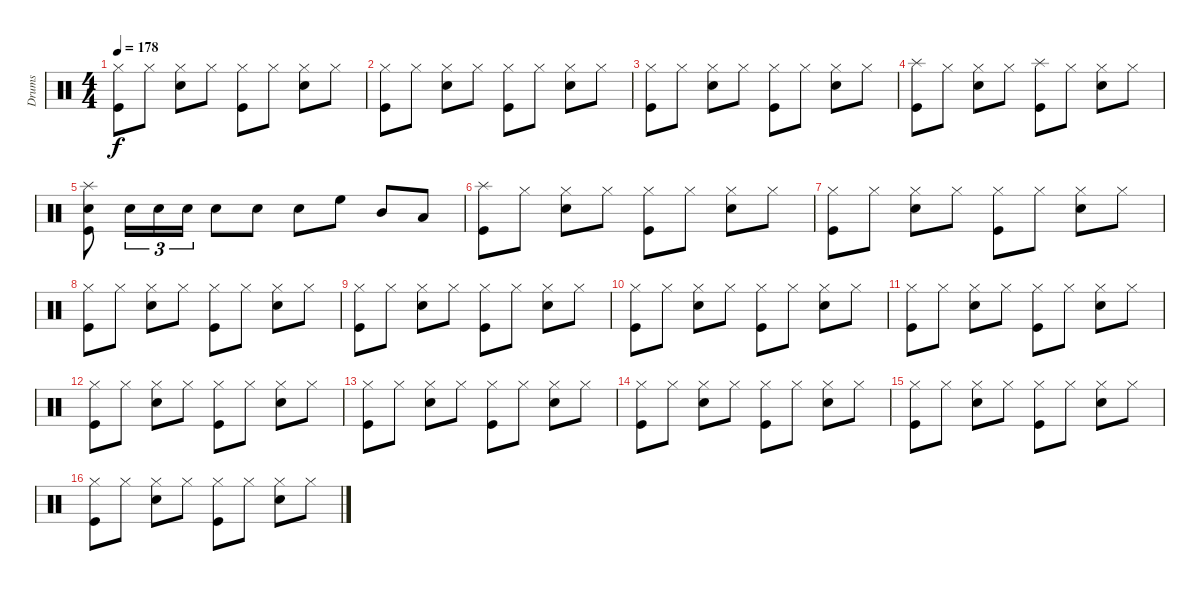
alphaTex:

\track ("Drums" "Drums") {instrument percussion}
\staff {score}
\articulation defaults
\ts (4 4)
\tempo 178
\clef neutral
\ks c
("Hi-Hat (closed)" "Kick (hit)").8{dy f} "Hi-Hat (closed)".8 ("Hi-Hat (closed)" "Electric Snare (hit)").8 "Hi-Hat (closed)".8 ("Hi-Hat (closed)" "Kick (hit)").8 "Hi-Hat (closed)".8 ("Hi-Hat (closed)" "Electric Snare (hit)").8 "Hi-Hat (closed)".8 |
("Hi-Hat (closed)" "Kick (hit)").8 "Hi-Hat (closed)".8 ("Hi-Hat (closed)" "Electric Snare (hit)").8 "Hi-Hat (closed)".8 ("Hi-Hat (closed)" "Kick (hit)").8 "Hi-Hat (closed)".8 ("Hi-Hat (closed)" "Electric Snare (hit)").8 "Hi-Hat (closed)".8 |
("Hi-Hat (closed)" "Kick (hit)").8 "Hi-Hat (closed)".8 ("Hi-Hat (closed)" "Electric Snare (hit)").8 "Hi-Hat (closed)".8 ("Hi-Hat (closed)" "Kick (hit)").8 "Hi-Hat (closed)".8 ("Hi-Hat (closed)" "Electric Snare (hit)").8 "Hi-Hat (closed)".8 |
("Splash (hit)" "Kick (hit)").8 "Hi-Hat (closed)".8 ("Hi-Hat (closed)" "Electric Snare (hit)").8 "Hi-Hat (closed)".8 ("Splash (hit)" "Kick (hit)").8 "Hi-Hat (closed)".8 ("Hi-Hat (closed)" "Electric Snare (hit)").8 "Hi-Hat (closed)".8 |
("Splash (hit)" "Electric Snare (hit)" "Kick (hit)").8 "Electric Snare (hit)".16{tu (3 2)} "Electric Snare (hit)".16{tu (3 2)} "Electric Snare (hit)".16{tu (3 2)} "Electric Snare (hit)".8 "Electric Snare (hit)".8 "Electric Snare (hit)".8 "High Floor Tom (hit)".8 "Mid Tom (hit)".8 "Low Tom (hit)".8 |
("Splash (hit)" "Kick (hit)").8 "Hi-Hat (closed)".8 ("Hi-Hat (closed)" "Electric Snare (hit)").8 "Hi-Hat (closed)".8 ("Hi-Hat (closed)" "Kick (hit)").8 "Hi-Hat (closed)".8 ("Hi-Hat (closed)" "Electric Snare (hit)").8 "Hi-Hat (closed)".8 |
("Hi-Hat (closed)" "Kick (hit)").8 "Hi-Hat (closed)".8 ("Hi-Hat (closed)" "Electric Snare (hit)").8 "Hi-Hat (closed)".8 ("Hi-Hat (closed)" "Kick (hit)").8 "Hi-Hat (closed)".8 ("Hi-Hat (closed)" "Electric Snare (hit)").8 "Hi-Hat (closed)".8 |
("Hi-Hat (closed)" "Kick (hit)").8 "Hi-Hat (closed)".8 ("Hi-Hat (closed)" "Electric Snare (hit)").8 "Hi-Hat (closed)".8 ("Hi-Hat (closed)" "Kick (hit)").8 "Hi-Hat (closed)".8 ("Hi-Hat (closed)" "Electric Snare (hit)").8 "Hi-Hat (closed)".8 |
("Hi-Hat (closed)" "Kick (hit)").8 "Hi-Hat (closed)".8 ("Hi-Hat (closed)" "Electric Snare (hit)").8 "Hi-Hat (closed)".8 ("Hi-Hat (closed)" "Kick (hit)").8 "Hi-Hat (closed)".8 ("Hi-Hat (closed)" "Electric Snare (hit)").8 "Hi-Hat (closed)".8 |
("Hi-Hat (closed)" "Kick (hit)").8 "Hi-Hat (closed)".8 ("Hi-Hat (closed)" "Electric Snare (hit)").8 "Hi-Hat (closed)".8 ("Hi-Hat (closed)" "Kick (hit)").8 "Hi-Hat (closed)".8 ("Hi-Hat (closed)" "Electric Snare (hit)").8 "Hi-Hat (closed)".8 |
("Hi-Hat (closed)" "Kick (hit)").8 "Hi-Hat (closed)".8 ("Hi-Hat (closed)" "Electric Snare (hit)").8 "Hi-Hat (closed)".8 ("Hi-Hat (closed)" "Kick (hit)").8 "Hi-Hat (closed)".8 ("Hi-Hat (closed)" "Electric Snare (hit)").8 "Hi-Hat (closed)".8 |
("Hi-Hat (closed)" "Kick (hit)").8 "Hi-Hat (closed)".8 ("Hi-Hat (closed)" "Electric Snare (hit)").8 "Hi-Hat (closed)".8 ("Hi-Hat (closed)" "Kick (hit)").8 "Hi-Hat (closed)".8 ("Hi-Hat (closed)" "Electric Snare (hit)").8 "Hi-Hat (closed)".8 |
("Hi-Hat (closed)" "Kick (hit)").8 "Hi-Hat (closed)".8 ("Hi-Hat (closed)" "Electric Snare (hit)").8 "Hi-Hat (closed)".8 ("Hi-Hat (closed)" "Kick (hit)").8 "Hi-Hat (closed)".8 ("Hi-Hat (closed)" "Electric Snare (hit)").8 "Hi-Hat (closed)".8 |
("Hi-Hat (closed)" "Kick (hit)").8 "Hi-Hat (closed)".8 ("Hi-Hat (closed)" "Electric Snare (hit)").8 "Hi-Hat (closed)".8 ("Hi-Hat (closed)" "Kick (hit)").8 "Hi-Hat (closed)".8 ("Hi-Hat (closed)" "Electric Snare (hit)").8 "Hi-Hat (closed)".8 |
("Hi-Hat (closed)" "Kick (hit)").8 "Hi-Hat (closed)".8 ("Hi-Hat (closed)" "Electric Snare (hit)").8 "Hi-Hat (closed)".8 ("Hi-Hat (closed)" "Kick (hit)").8 "Hi-Hat (closed)".8 ("Hi-Hat (closed)" "Electric Snare (hit)").8 "Hi-Hat (closed)".8 |
("Hi-Hat (closed)" "Kick (hit)").8 "Hi-Hat (closed)".8 ("Hi-Hat (closed)" "Electric Snare (hit)").8 "Hi-Hat (closed)".8 ("Hi-Hat (closed)" "Kick (hit)").8 "Hi-Hat (closed)".8 ("Hi-Hat (closed)" "Electric Snare (hit)").8 "Hi-Hat (closed)".8
